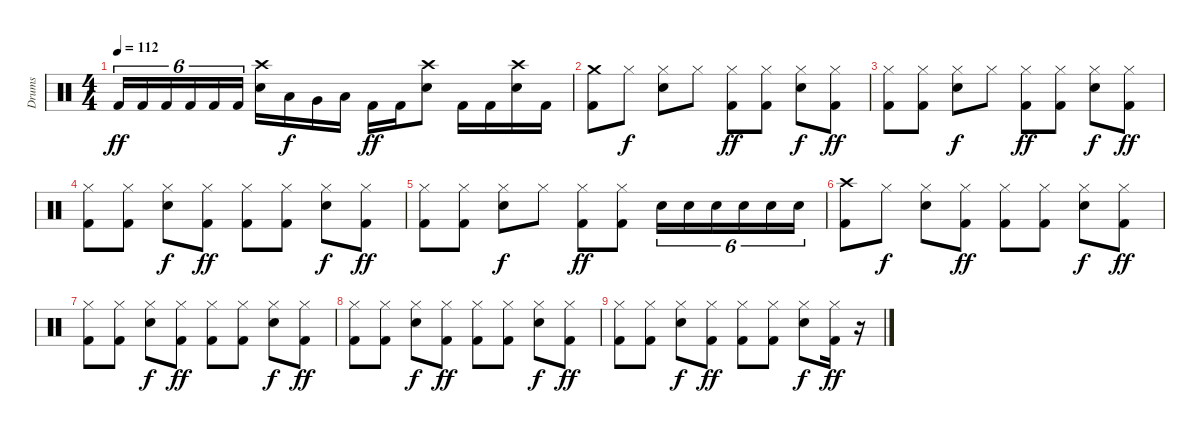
\track ("Drums" "Drums") {instrument percussion}
\staff {score}
\articulation defaults
\ts (4 4)
\tempo 112
\clef neutral
\ks c "Kick (hit) 2".16{tu (6 4) dy ff} "Kick (hit) 2".16{tu (6 4)} "Kick (hit) 2".16{tu (6 4)} "Kick (hit) 2".16{tu (6 4)} "Kick (hit) 2".16{tu (6 4)} "Kick (hit) 2".16{tu (6 4)}
("Crash high (hit)" "Snare (hit) 2").16 "Low Tom (hit)".16{dy f} "Very Low Tom (hit)".16 "Low Floor Tom (hit)".16 "Kick (hit) 2".16{dy ff} "Kick (hit) 2".16 ("Snare (hit) 2" "Crash high (hit)").8 "Kick (hit) 2".16 "Kick (hit) 2".16 ("Snare (hit) 2" "Crash high (hit)").16 "Kick (hit) 2".16 |
("Crash medium (hit)" "Kick (hit) 2").8 "Hi-Hat (closed)".8{dy f} ("Hi-Hat (closed)" "Snare (hit) 2").8 "Hi-Hat (closed)".8 ("Kick (hit) 2" "Hi-Hat (closed)").8{dy ff} ("Hi-Hat (closed)" "Kick (hit) 2").8 ("Hi-Hat (closed)" "Snare (hit) 2").8{dy f} ("Hi-Hat (closed)" "Kick (hit) 2").8{dy ff} |
("Hi-Hat (closed)" "Kick (hit) 2").8 ("Kick (hit) 2" "Hi-Hat (closed)").8 ("Hi-Hat (closed)" "Snare (hit) 2").8{dy f} "Hi-Hat (closed)".8 ("Kick (hit) 2" "Hi-Hat (closed)").8{dy ff} ("Hi-Hat (closed)" "Kick (hit) 2").8 ("Hi-Hat (closed)" "Snare (hit) 2").8{dy f} ("Kick (hit) 2" "Hi-Hat (closed)").8{dy ff} |
("Hi-Hat (closed)" "Kick (hit) 2").8 ("Kick (hit) 2" "Hi-Hat (closed)").8 ("Hi-Hat (closed)" "Snare (hit) 2").8{dy f} ("Kick (hit) 2" "Hi-Hat (closed)").8{dy ff} ("Kick (hit) 2" "Hi-Hat (closed)").8 ("Hi-Hat (closed)" "Kick (hit) 2").8 ("Hi-Hat (closed)" "Snare (hit) 2").8{dy f} ("Kick (hit) 2" "Hi-Hat (closed)").8{dy ff} |
("Hi-Hat (closed)" "Kick (hit) 2").8 ("Kick (hit) 2" "Hi-Hat (closed)").8 ("Hi-Hat (closed)" "Snare (hit) 2").8{dy f} "Hi-Hat (closed)".8 ("Hi-Hat (closed)" "Kick (hit) 2").8{dy ff} ("Hi-Hat (closed)" "Kick (hit) 2").8 "Snare (hit) 2".16{tu (6 4)} "Snare (hit) 2".16{tu (6 4)} "Snare (hit) 2".16{tu (6 4)} "Snare (hit) 2".16{tu (6 4)} "Snare (hit) 2".16{tu (6 4)} "Snare (hit) 2".16{tu (6 4)} |
("Crash high (hit)" "Kick (hit) 2").8 "Hi-Hat (closed)".8{dy f} ("Hi-Hat (closed)" "Snare (hit) 2").8 ("Kick (hit) 2" "Hi-Hat (closed)").8{dy ff} ("Kick (hit) 2" "Hi-Hat (closed)").8 ("Hi-Hat (closed)" "Kick (hit) 2").8 ("Hi-Hat (closed)" "Snare (hit) 2").8{dy f} ("Hi-Hat (closed)" "Kick (hit) 2").8{dy ff} |
("Hi-Hat (closed)" "Kick (hit) 2").8{volume 7} ("Kick (hit) 2" "Hi-Hat (closed)").8 ("Hi-Hat (closed)" "Snare (hit) 2").8{dy f} ("Kick (hit) 2" "Hi-Hat (closed)").8{dy ff} ("Kick (hit) 2" "Hi-Hat (closed)").8 ("Hi-Hat (closed)" "Kick (hit) 2").8 ("Hi-Hat (closed)" "Snare (hit) 2").8{dy f} ("Kick (hit) 2" "Hi-Hat (closed)").8{dy ff} |
("Hi-Hat (closed)" "Kick (hit) 2").8 ("Kick (hit) 2" "Hi-Hat (closed)").8 ("Hi-Hat (closed)" "Snare (hit) 2").8{dy f} ("Kick (hit) 2" "Hi-Hat (closed)").8{dy ff} ("Kick (hit) 2" "Hi-Hat (closed)").8 ("Hi-Hat (closed)" "Kick (hit) 2").8 ("Hi-Hat (closed)" "Snare (hit) 2").8{dy f} ("Kick (hit) 2" "Hi-Hat (closed)").8{dy ff} |
("Hi-Hat (closed)" "Kick (hit) 2").8 ("Kick (hit) 2" "Hi-Hat (closed)").8 ("Hi-Hat (closed)" "Snare (hit) 2").8{dy f} ("Kick (hit) 2" "Hi-Hat (closed)").8{dy ff} ("Hi-Hat (closed)" "Kick (hit) 2").8 ("Hi-Hat (closed)" "Kick (hit) 2").8 ("Hi-Hat (closed)" "Snare (hit) 2").8{dy f} ("Hi-Hat (closed)" "Kick (hit) 2").16{dy ff} r.16
